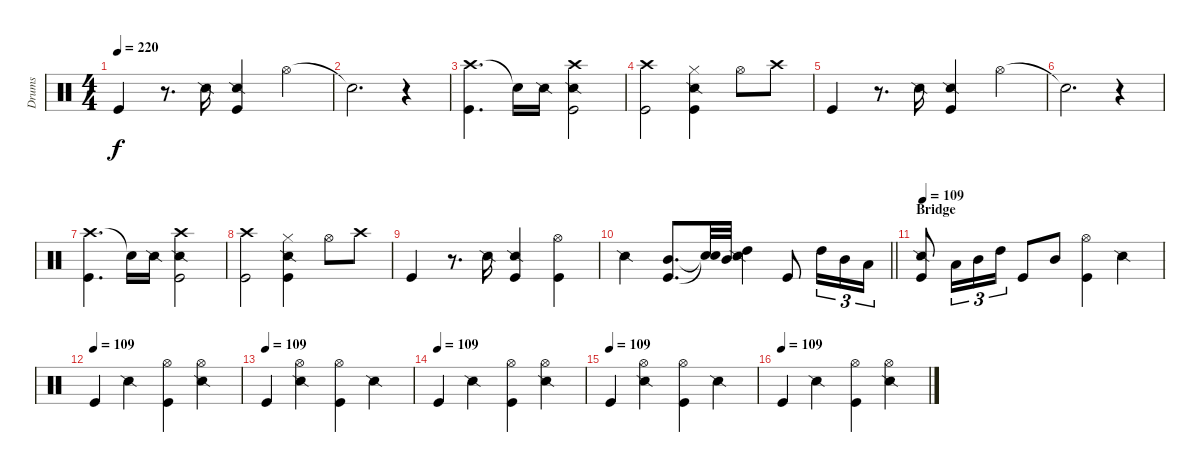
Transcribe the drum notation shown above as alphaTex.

\track ("Drums" "Drums") {instrument percussion}
\staff {score}
\articulation defaults
\ts (4 4)
\tempo 220
\clef neutral
\ks c "Kick (hit)".4{dy f}
r.8{d} "Snare (side stick) 2".16 ("Snare (side stick) 2" "Kick (hit)").4 "Hi-Hat (open)".4 |
"Snare (hit)"{t}.2{d} r.4 |
("Crash high (hit)" "Kick (hit)").4{d} "Snare (hit)"{t}.16 "Snare (side stick) 2".16 ("Crash high (hit)" "Snare (side stick) 2" "Kick (hit)").2 |
("Crash high (hit)" "Kick (hit)").2 ("Hi-Hat (closed)" "Snare (side stick) 2" "Kick (hit)").4 "Hi-Hat (open)".8 "Crash high (hit)".8 |
"Kick (hit)".4 r.8{d} "Snare (side stick) 2".16 ("Snare (side stick) 2" "Kick (hit)").4 "Hi-Hat (open)".4 |
"Snare (hit)"{t}.2{d} r.4 |
("Crash high (hit)" "Kick (hit)").4{d} "Snare (hit)"{t}.16 "Snare (side stick) 2".16 ("Crash high (hit)" "Snare (side stick) 2" "Kick (hit)").2 |
("Crash high (hit)" "Kick (hit)").2 ("Hi-Hat (closed)" "Snare (side stick) 2" "Kick (hit)").4 "Hi-Hat (open)".8 "Crash high (hit)".8 |
"Kick (hit)".4 r.8{d} "Snare (side stick) 2".16 ("Snare (side stick) 2" "Kick (hit)").4 ("Kick (hit)" "Hi-Hat (open)").4 |
\barLineRight lightlight "Snare (side stick) 2".4
("Kick (hit)" "Mid Tom (hit)").8{d} ("Snare (hit)"{t} "Snare (hit)"{t}).32 "Mid Tom (hit)".32 ("Snare (side stick) 2" "High Tom (hit)").4 "Kick (hit)".8 "High Tom (hit)".16{tu (3 2)} "Mid Tom (hit)".16{tu (3 2)} "Low Tom (hit)".16{tu (3 2)} |
\section ("" "Bridge")
\tempo 109
("Snare (side stick) 2" "Kick (hit)").8 "Low Tom (hit)".16{tu (3 2)} "Mid Tom (hit)".16{tu (3 2)} "High Tom (hit)".16{tu (3 2)} "Kick (hit)".8 "Mid Tom (hit)".8 ("Hi-Hat (open)" "Kick (hit)").4 "Snare (side stick) 2".4 |
\tempo (109)
"Kick (hit)".4 "Snare (side stick) 2".4 ("Hi-Hat (open)" "Kick (hit)").4 ("Hi-Hat (open)" "Snare (side stick) 2").4 |
\tempo (109)
"Kick (hit)".4 ("Hi-Hat (open)" "Snare (side stick) 2").4 ("Hi-Hat (open)" "Kick (hit)").4 "Snare (side stick) 2".4 |
\tempo (109)
"Kick (hit)".4 "Snare (side stick) 2".4 ("Hi-Hat (open)" "Kick (hit)").4 ("Hi-Hat (open)" "Snare (side stick) 2").4 |
\tempo (109)
"Kick (hit)".4 ("Hi-Hat (open)" "Snare (side stick) 2").4 ("Hi-Hat (open)" "Kick (hit)").4 "Snare (side stick) 2".4 |
\tempo (109)
"Kick (hit)".4 "Snare (side stick) 2".4 ("Hi-Hat (open)" "Kick (hit)").4 ("Hi-Hat (open)" "Snare (side stick) 2").4
